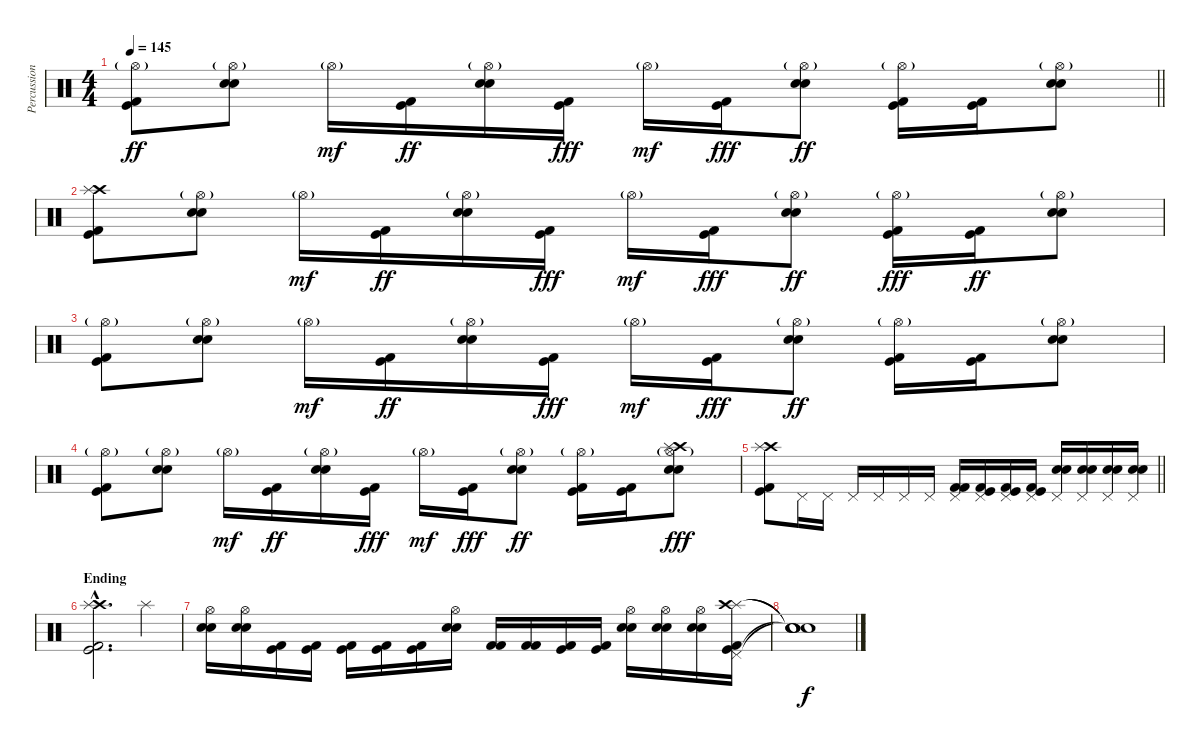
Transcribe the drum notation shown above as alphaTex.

\track ("Percussion" "Percussion") {instrument percussion}
\staff {score}
\articulation defaults
\ts (4 4)
\tempo 145
\clef neutral
\barLineRight lightlight
\ks c
("Hi-Hat (open)"{g} "Kick (hit)" "Kick (hit) 2").8{dy ff} ("Hi-Hat (open)"{g} "Electric Snare (hit)" "Snare (hit) 2").8 "Hi-Hat (open)"{g}.16{dy mf} ("Kick (hit)" "Kick (hit) 2").16{dy ff} ("Hi-Hat (open)"{g} "Electric Snare (hit)" "Snare (hit) 2").16 ("Kick (hit)" "Kick (hit) 2").16{dy fff} "Hi-Hat (open)"{g}.16{dy mf} ("Kick (hit)" "Kick (hit) 2").16{dy fff} ("Hi-Hat (open)"{g} "Electric Snare (hit)" "Snare (hit) 2").8{dy ff} ("Hi-Hat (open)"{g} "Kick (hit)" "Kick (hit) 2").16 ("Kick (hit)" "Kick (hit) 2").16 ("Hi-Hat (open)"{g} "Electric Snare (hit)" "Snare (hit) 2").8 |
("Crash high (hit)" "Splash (hit)" "Kick (hit)" "Kick (hit) 2").8 ("Hi-Hat (open)"{g} "Electric Snare (hit)" "Snare (hit) 2").8 "Hi-Hat (open)"{g}.16{dy mf} ("Kick (hit)" "Kick (hit) 2").16{dy ff} ("Hi-Hat (open)"{g} "Electric Snare (hit)" "Snare (hit) 2").16 ("Kick (hit)" "Kick (hit) 2").16{dy fff} "Hi-Hat (open)"{g}.16{dy mf} ("Kick (hit)" "Kick (hit) 2").16{dy fff} ("Hi-Hat (open)"{g} "Electric Snare (hit)" "Snare (hit) 2").8{dy ff} ("Hi-Hat (open)"{g} "Kick (hit)" "Kick (hit) 2").16{dy fff} ("Kick (hit)" "Kick (hit) 2").16{dy ff} ("Hi-Hat (open)"{g} "Electric Snare (hit)" "Snare (hit) 2").8 |
("Hi-Hat (open)"{g} "Kick (hit)" "Kick (hit) 2").8 ("Hi-Hat (open)"{g} "Electric Snare (hit)" "Snare (hit) 2").8 "Hi-Hat (open)"{g}.16{dy mf} ("Kick (hit)" "Kick (hit) 2").16{dy ff} ("Hi-Hat (open)"{g} "Electric Snare (hit)" "Snare (hit) 2").16 ("Kick (hit)" "Kick (hit) 2").16{dy fff} "Hi-Hat (open)"{g}.16{dy mf} ("Kick (hit)" "Kick (hit) 2").16{dy fff} ("Hi-Hat (open)"{g} "Electric Snare (hit)" "Snare (hit) 2").8{dy ff} ("Hi-Hat (open)"{g} "Kick (hit)" "Kick (hit) 2").16 ("Kick (hit)" "Kick (hit) 2").16 ("Hi-Hat (open)"{g} "Electric Snare (hit)" "Snare (hit) 2").8 |
("Hi-Hat (open)"{g} "Kick (hit)" "Kick (hit) 2").8 ("Hi-Hat (open)"{g} "Electric Snare (hit)" "Snare (hit) 2").8 "Hi-Hat (open)"{g}.16{dy mf} ("Kick (hit)" "Kick (hit) 2").16{dy ff} ("Hi-Hat (open)"{g} "Electric Snare (hit)" "Snare (hit) 2").16 ("Kick (hit)" "Kick (hit) 2").16{dy fff} "Hi-Hat (open)"{g}.16{dy mf} ("Kick (hit)" "Kick (hit) 2").16{dy fff} ("Hi-Hat (open)"{g} "Electric Snare (hit)" "Snare (hit) 2").8{dy ff} ("Hi-Hat (open)"{g} "Kick (hit)" "Kick (hit) 2").16 ("Kick (hit)" "Kick (hit) 2").16 ("Hi-Hat (open)"{g} "Electric Snare (hit)" "Snare (hit) 2" "Crash high (hit)" "Splash (hit)").8{dy fff} |
\barLineRight lightlight
("Crash high (hit)" "Splash (hit)" "Kick (hit)" "Kick (hit) 2").8 "Pedal Hi-Hat (hit)".16 "Pedal Hi-Hat (hit)".16 "Pedal Hi-Hat (hit)".16 "Pedal Hi-Hat (hit)".16 "Pedal Hi-Hat (hit)".16 "Pedal Hi-Hat (hit)".16 ("Pedal Hi-Hat (hit)" "Kick (hit) 2" "Kick (hit) 2").16 ("Pedal Hi-Hat (hit)" "Kick (hit)" "Kick (hit) 2").16 ("Pedal Hi-Hat (hit)" "Kick (hit)" "Kick (hit) 2").16 ("Pedal Hi-Hat (hit)" "Kick (hit)" "Kick (hit) 2").16 ("Electric Snare (hit)" "Snare (hit) 2" "Pedal Hi-Hat (hit)").16 ("Electric Snare (hit)" "Snare (hit) 2" "Pedal Hi-Hat (hit)").16 ("Electric Snare (hit)" "Snare (hit) 2" "Pedal Hi-Hat (hit)").16 ("Electric Snare (hit)" "Snare (hit) 2" "Pedal Hi-Hat (hit)").16 |
\section ("" "Ending")
("Crash high (hit)"{hac} "Splash (hit)"{hac} "Kick (hit)"{hac} "Kick (hit) 2"{hac}).2{d} "Splash (hit)".4 |
("Hi-Hat (open)" "Electric Snare (hit)" "Snare (hit) 2").16 ("Hi-Hat (open)" "Electric Snare (hit)" "Snare (hit) 2").16 ("Kick (hit)" "Kick (hit) 2").16 ("Kick (hit)" "Kick (hit) 2").16 ("Kick (hit)" "Kick (hit) 2").16 ("Kick (hit)" "Kick (hit) 2").16 ("Kick (hit)" "Kick (hit) 2").16 ("Hi-Hat (open)" "Electric Snare (hit)" "Snare (hit) 2").16 ("Kick (hit) 2" "Kick (hit) 2").16 ("Kick (hit) 2" "Kick (hit) 2").16 ("Kick (hit)" "Kick (hit) 2").16 ("Kick (hit)" "Kick (hit) 2").16 ("Hi-Hat (open)" "Electric Snare (hit)" "Snare (hit) 2").16 ("Hi-Hat (open)" "Electric Snare (hit)" "Snare (hit) 2").16 ("Hi-Hat (open)" "Electric Snare (hit)" "Snare (hit) 2").16 ("Splash (hit)" "Crash high (hit)" "Pedal Hi-Hat (hit)" "Kick (hit)" "Kick (hit) 2").16 |
("Snare (hit)"{t} "Snare (hit)"{t} "Snare (hit)"{t} "Snare (hit)"{t}).1{dy f}
